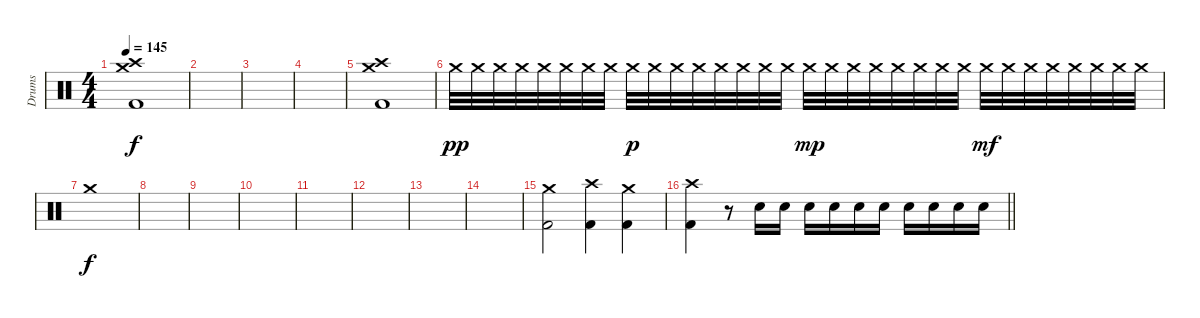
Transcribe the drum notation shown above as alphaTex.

\track ("Drums" "Drums") {instrument percussion}
\staff {score}
\articulation defaults
\ts (4 4)
\tempo 145
\clef neutral
\ks c
("Crash high (hit)" "Crash medium (hit)" "Kick (hit) 2").1{dy f} |
|
|
|
("Kick (hit) 2" "Crash medium (hit)" "Crash high (hit)").1 |
"Crash medium (hit)".32{dy pp} "Crash medium (hit)".32 "Crash medium (hit)".32 "Crash medium (hit)".32 "Crash medium (hit)".32 "Crash medium (hit)".32 "Crash medium (hit)".32 "Crash medium (hit)".32 "Crash medium (hit)".32{dy p} "Crash medium (hit)".32 "Crash medium (hit)".32 "Crash medium (hit)".32 "Crash medium (hit)".32 "Crash medium (hit)".32 "Crash medium (hit)".32 "Crash medium (hit)".32 "Crash medium (hit)".32{dy mp} "Crash medium (hit)".32 "Crash medium (hit)".32 "Crash medium (hit)".32 "Crash medium (hit)".32 "Crash medium (hit)".32 "Crash medium (hit)".32 "Crash medium (hit)".32 "Crash medium (hit)".32{dy mf} "Crash medium (hit)".32 "Crash medium (hit)".32 "Crash medium (hit)".32 "Crash medium (hit)".32 "Crash medium (hit)".32 "Crash medium (hit)".32 "Crash medium (hit)".32 |
"Crash medium (hit)".1{dy f} |
|
|
|
|
|
|
|
("Kick (hit) 2" "Crash medium (hit)").2 ("Kick (hit) 2" "Crash high (hit)").4 ("Crash medium (hit)" "Kick (hit) 2").4 |
\barLineRight lightlight
("Crash high (hit)" "Kick (hit) 2").4 r.8 "Electric Snare (hit)".16 "Electric Snare (hit)".16 "Electric Snare (hit)".16 "Electric Snare (hit)".16 "Electric Snare (hit)".16 "Electric Snare (hit)".16 "Electric Snare (hit)".16 "Electric Snare (hit)".16 "Electric Snare (hit)".16 "Electric Snare (hit)".16
